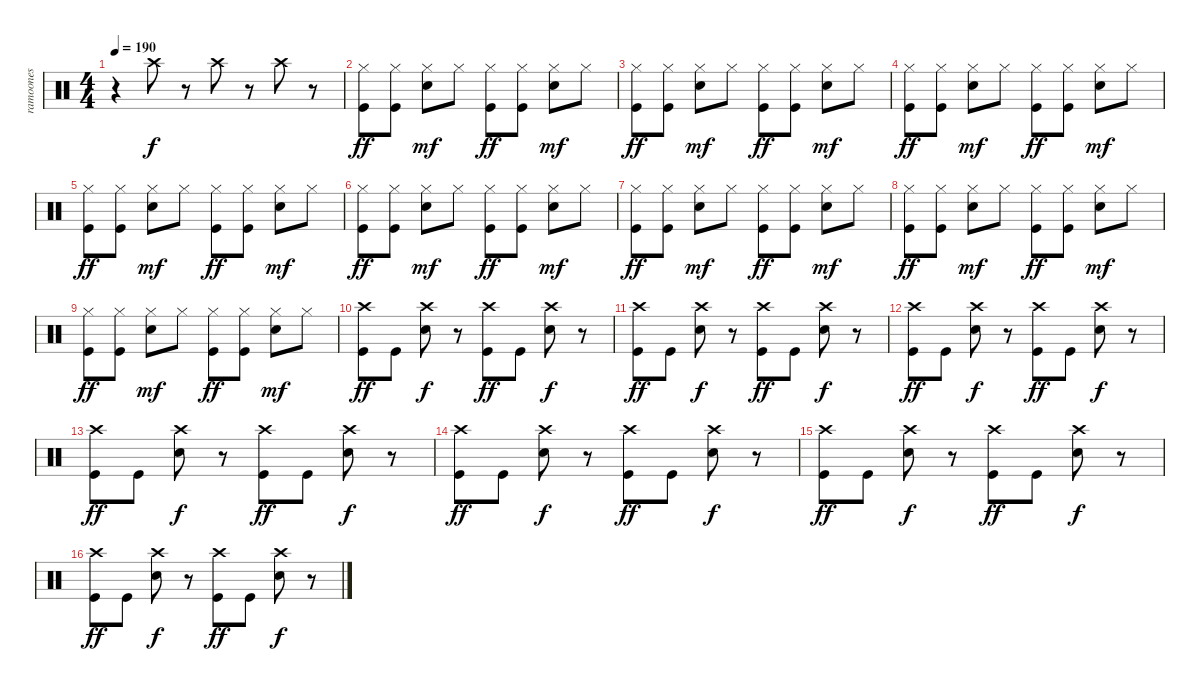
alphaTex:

\track ("ramoones" "ramoones") {instrument percussion}
\staff {score}
\articulation defaults
\ts (4 4)
\tempo 190
\clef neutral
\ks c
r.4{dy f} "Crash high (hit)".8 r.8 "Crash high (hit)".8 r.8 "Crash high (hit)".8 r.8 |
("Hi-Hat (closed)" "Kick (hit)").8{dy ff} ("Hi-Hat (closed)" "Kick (hit)").8 ("Hi-Hat (closed)" "Electric Snare (hit)").8{dy mf} "Hi-Hat (closed)".8 ("Hi-Hat (closed)" "Kick (hit)").8{dy ff} ("Hi-Hat (closed)" "Kick (hit)").8 ("Hi-Hat (closed)" "Electric Snare (hit)").8{dy mf} "Hi-Hat (closed)".8 |
("Hi-Hat (closed)" "Kick (hit)").8{dy ff} ("Hi-Hat (closed)" "Kick (hit)").8 ("Hi-Hat (closed)" "Electric Snare (hit)").8{dy mf} "Hi-Hat (closed)".8 ("Hi-Hat (closed)" "Kick (hit)").8{dy ff} ("Hi-Hat (closed)" "Kick (hit)").8 ("Hi-Hat (closed)" "Electric Snare (hit)").8{dy mf} "Hi-Hat (closed)".8 |
("Hi-Hat (closed)" "Kick (hit)").8{dy ff} ("Hi-Hat (closed)" "Kick (hit)").8 ("Hi-Hat (closed)" "Electric Snare (hit)").8{dy mf} "Hi-Hat (closed)".8 ("Hi-Hat (closed)" "Kick (hit)").8{dy ff} ("Hi-Hat (closed)" "Kick (hit)").8 ("Hi-Hat (closed)" "Electric Snare (hit)").8{dy mf} "Hi-Hat (closed)".8 |
("Hi-Hat (closed)" "Kick (hit)").8{dy ff} ("Hi-Hat (closed)" "Kick (hit)").8 ("Hi-Hat (closed)" "Electric Snare (hit)").8{dy mf} "Hi-Hat (closed)".8 ("Hi-Hat (closed)" "Kick (hit)").8{dy ff} ("Hi-Hat (closed)" "Kick (hit)").8 ("Hi-Hat (closed)" "Electric Snare (hit)").8{dy mf} "Hi-Hat (closed)".8 |
("Hi-Hat (closed)" "Kick (hit)").8{dy ff} ("Hi-Hat (closed)" "Kick (hit)").8 ("Hi-Hat (closed)" "Electric Snare (hit)").8{dy mf} "Hi-Hat (closed)".8 ("Hi-Hat (closed)" "Kick (hit)").8{dy ff} ("Hi-Hat (closed)" "Kick (hit)").8 ("Hi-Hat (closed)" "Electric Snare (hit)").8{dy mf} "Hi-Hat (closed)".8 |
("Hi-Hat (closed)" "Kick (hit)").8{dy ff} ("Hi-Hat (closed)" "Kick (hit)").8 ("Hi-Hat (closed)" "Electric Snare (hit)").8{dy mf} "Hi-Hat (closed)".8 ("Hi-Hat (closed)" "Kick (hit)").8{dy ff} ("Hi-Hat (closed)" "Kick (hit)").8 ("Hi-Hat (closed)" "Electric Snare (hit)").8{dy mf} "Hi-Hat (closed)".8 |
("Hi-Hat (closed)" "Kick (hit)").8{dy ff} ("Hi-Hat (closed)" "Kick (hit)").8 ("Hi-Hat (closed)" "Electric Snare (hit)").8{dy mf} "Hi-Hat (closed)".8 ("Hi-Hat (closed)" "Kick (hit)").8{dy ff} ("Hi-Hat (closed)" "Kick (hit)").8 ("Hi-Hat (closed)" "Electric Snare (hit)").8{dy mf} "Hi-Hat (closed)".8 |
("Hi-Hat (closed)" "Kick (hit)").8{dy ff} ("Hi-Hat (closed)" "Kick (hit)").8 ("Hi-Hat (closed)" "Electric Snare (hit)").8{dy mf} "Hi-Hat (closed)".8 ("Hi-Hat (closed)" "Kick (hit)").8{dy ff} ("Hi-Hat (closed)" "Kick (hit)").8 ("Hi-Hat (closed)" "Electric Snare (hit)").8{dy mf} "Hi-Hat (closed)".8 |
("Crash high (hit)" "Kick (hit)").8{dy ff} "Kick (hit)".8 ("Crash high (hit)" "Electric Snare (hit)").8{dy f} r.8 ("Crash high (hit)" "Kick (hit)").8{dy ff} "Kick (hit)".8 ("Crash high (hit)" "Electric Snare (hit)").8{dy f} r.8 |
("Crash high (hit)" "Kick (hit)").8{dy ff} "Kick (hit)".8 ("Crash high (hit)" "Electric Snare (hit)").8{dy f} r.8 ("Crash high (hit)" "Kick (hit)").8{dy ff} "Kick (hit)".8 ("Crash high (hit)" "Electric Snare (hit)").8{dy f} r.8 |
("Crash high (hit)" "Kick (hit)").8{dy ff} "Kick (hit)".8 ("Crash high (hit)" "Electric Snare (hit)").8{dy f} r.8 ("Crash high (hit)" "Kick (hit)").8{dy ff} "Kick (hit)".8 ("Crash high (hit)" "Electric Snare (hit)").8{dy f} r.8 |
("Crash high (hit)" "Kick (hit)").8{dy ff} "Kick (hit)".8 ("Crash high (hit)" "Electric Snare (hit)").8{dy f} r.8 ("Crash high (hit)" "Kick (hit)").8{dy ff} "Kick (hit)".8 ("Crash high (hit)" "Electric Snare (hit)").8{dy f} r.8 |
("Crash high (hit)" "Kick (hit)").8{dy ff} "Kick (hit)".8 ("Crash high (hit)" "Electric Snare (hit)").8{dy f} r.8 ("Crash high (hit)" "Kick (hit)").8{dy ff} "Kick (hit)".8 ("Crash high (hit)" "Electric Snare (hit)").8{dy f} r.8 |
("Crash high (hit)" "Kick (hit)").8{dy ff} "Kick (hit)".8 ("Crash high (hit)" "Electric Snare (hit)").8{dy f} r.8 ("Crash high (hit)" "Kick (hit)").8{dy ff} "Kick (hit)".8 ("Crash high (hit)" "Electric Snare (hit)").8{dy f} r.8 |
("Crash high (hit)" "Kick (hit)").8{dy ff} "Kick (hit)".8 ("Crash high (hit)" "Electric Snare (hit)").8{dy f} r.8 ("Crash high (hit)" "Kick (hit)").8{dy ff} "Kick (hit)".8 ("Crash high (hit)" "Electric Snare (hit)").8{dy f} r.8
